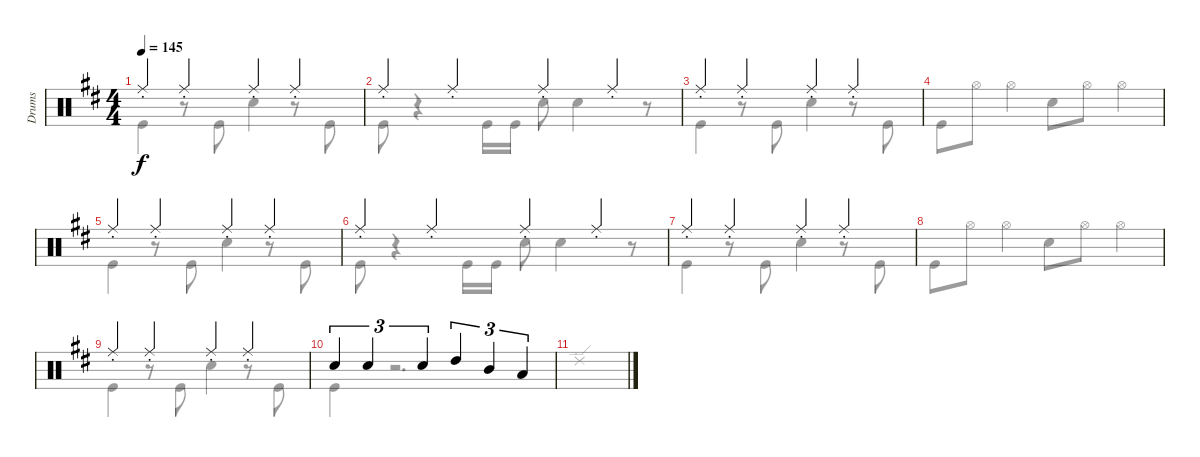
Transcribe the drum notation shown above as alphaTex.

\track ("Drums" "Drums") {instrument percussion}
\staff {score}
\articulation defaults
\voice
\ts (4 4)
\tempo 145
\clef neutral
\ks d "Ride (middle)"{st}.4{dy f} "Ride (middle)"{st}.4 "Ride (middle)"{st}.4 "Ride (middle)"{st}.4
|
"Ride (middle)"{st}.4 "Ride (middle)"{st}.4 "Ride (middle)"{st}.4 "Ride (middle)"{st}.4 |
"Ride (middle)"{st}.4 "Ride (middle)"{st}.4 "Ride (middle)"{st}.4 "Ride (middle)"{st}.4 |
|
"Ride (middle)"{st}.4 "Ride (middle)"{st}.4 "Ride (middle)"{st}.4 "Ride (middle)"{st}.4 |
"Ride (middle)"{st}.4 "Ride (middle)"{st}.4 "Ride (middle)"{st}.4 "Ride (middle)"{st}.4 |
"Ride (middle)"{st}.4 "Ride (middle)"{st}.4 "Ride (middle)"{st}.4 "Ride (middle)"{st}.4 |
|
"Ride (middle)"{st}.4 "Ride (middle)"{st}.4 "Ride (middle)"{st}.4 "Ride (middle)"{st}.4 |
"Electric Snare (hit)".4{tu (3 2)} "Electric Snare (hit)".4{tu (3 2)} "Electric Snare (hit)".4{tu (3 2)} "High Tom (hit)".4{tu (3 2)} "Mid Tom (hit)".4{tu (3 2)} "Low Tom (hit)".4{tu (3 2)} |
|
|
|
|
\voice
\clef neutral
\ottava regular
\simile none
\ks d "Kick (hit)".4{dy f}
r.8 "Kick (hit)".8 "Electric Snare (hit)".4 r.8 "Kick (hit)".8 |
"Kick (hit)".8 r.4 "Kick (hit)".16 "Kick (hit)".16 "Electric Snare (hit)".8 "Electric Snare (hit)".4 r.8 |
"Kick (hit)".4 r.8 "Kick (hit)".8 "Electric Snare (hit)".4 r.8 "Kick (hit)".8 |
"Kick (hit)".8 "Hi-Hat (open)".8 "Hi-Hat (open)".4 "Electric Snare (hit)".8 "Hi-Hat (open)".8 "Hi-Hat (open)".4 |
"Kick (hit)".4 r.8 "Kick (hit)".8 "Electric Snare (hit)".4 r.8 "Kick (hit)".8 |
"Kick (hit)".8 r.4 "Kick (hit)".16 "Kick (hit)".16 "Electric Snare (hit)".8 "Electric Snare (hit)".4 r.8 |
"Kick (hit)".4 r.8 "Kick (hit)".8 "Electric Snare (hit)".4 r.8 "Kick (hit)".8 |
"Kick (hit)".8 "Hi-Hat (open)".8 "Hi-Hat (open)".4 "Electric Snare (hit)".8 "Hi-Hat (open)".8 "Hi-Hat (open)".4 |
"Kick (hit)".4 r.8 "Kick (hit)".8 "Electric Snare (hit)".4 r.8 "Kick (hit)".8 |
"Kick (hit)".4 r.2{d} |
"Ride (edge) 2".1 |
|
|
|
